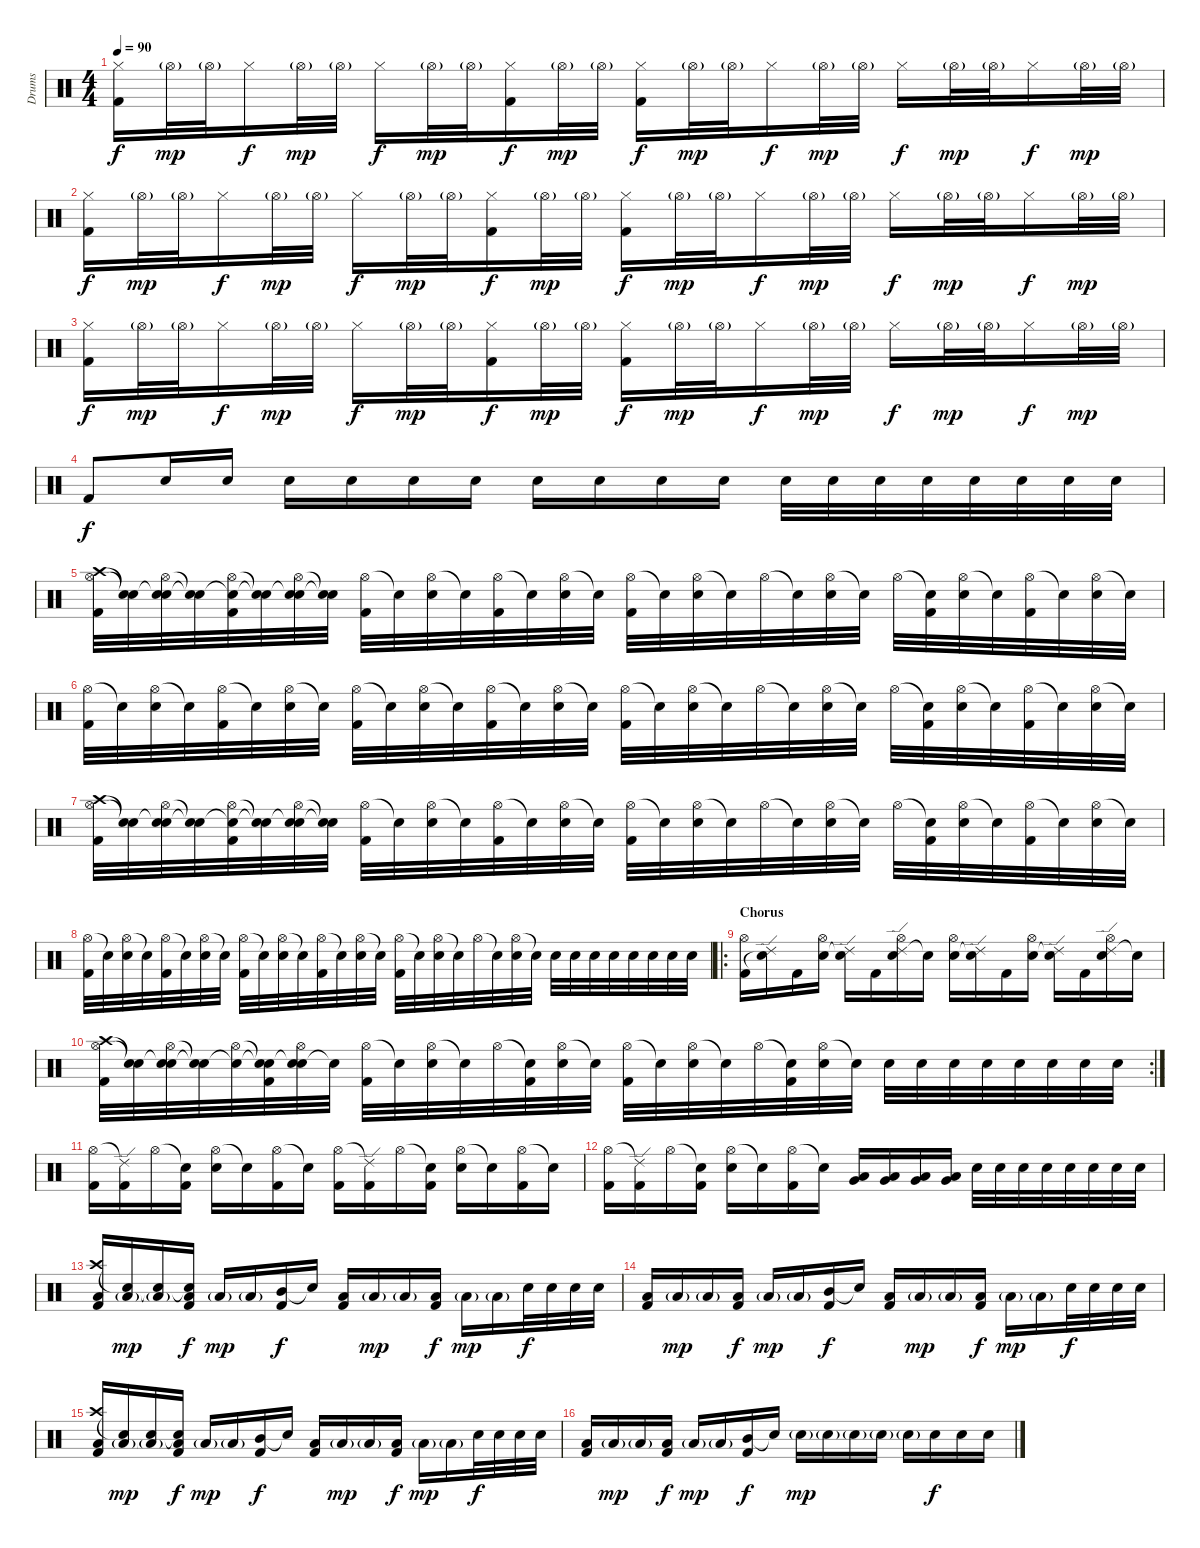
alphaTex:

\track ("Drums" "Drums") {instrument percussion}
\staff {score}
\articulation defaults
\ts (4 4)
\tempo 90
\clef neutral
\ks c
("Hi-Hat (closed)" "Kick (hit) 2").16{dy f} "Hi-Hat (open)"{g}.32{dy mp} "Hi-Hat (open)"{g}.32 "Hi-Hat (closed)".16{dy f} "Hi-Hat (open)"{g}.32{dy mp} "Hi-Hat (open)"{g}.32 "Hi-Hat (closed)".16{dy f} "Hi-Hat (open)"{g}.32{dy mp} "Hi-Hat (open)"{g}.32 ("Hi-Hat (closed)" "Kick (hit) 2").16{dy f} "Hi-Hat (open)"{g}.32{dy mp} "Hi-Hat (open)"{g}.32 ("Hi-Hat (closed)" "Kick (hit) 2").16{dy f} "Hi-Hat (open)"{g}.32{dy mp} "Hi-Hat (open)"{g}.32 "Hi-Hat (closed)".16{dy f} "Hi-Hat (open)"{g}.32{dy mp} "Hi-Hat (open)"{g}.32 "Hi-Hat (closed)".16{dy f} "Hi-Hat (open)"{g}.32{dy mp} "Hi-Hat (open)"{g}.32 "Hi-Hat (closed)".16{dy f} "Hi-Hat (open)"{g}.32{dy mp} "Hi-Hat (open)"{g}.32 |
("Hi-Hat (closed)" "Kick (hit) 2").16{dy f} "Hi-Hat (open)"{g}.32{dy mp} "Hi-Hat (open)"{g}.32 "Hi-Hat (closed)".16{dy f} "Hi-Hat (open)"{g}.32{dy mp} "Hi-Hat (open)"{g}.32 "Hi-Hat (closed)".16{dy f} "Hi-Hat (open)"{g}.32{dy mp} "Hi-Hat (open)"{g}.32 ("Hi-Hat (closed)" "Kick (hit) 2").16{dy f} "Hi-Hat (open)"{g}.32{dy mp} "Hi-Hat (open)"{g}.32 ("Hi-Hat (closed)" "Kick (hit) 2").16{dy f} "Hi-Hat (open)"{g}.32{dy mp} "Hi-Hat (open)"{g}.32 "Hi-Hat (closed)".16{dy f} "Hi-Hat (open)"{g}.32{dy mp} "Hi-Hat (open)"{g}.32 "Hi-Hat (closed)".16{dy f} "Hi-Hat (open)"{g}.32{dy mp} "Hi-Hat (open)"{g}.32 "Hi-Hat (closed)".16{dy f} "Hi-Hat (open)"{g}.32{dy mp} "Hi-Hat (open)"{g}.32 |
("Hi-Hat (closed)" "Kick (hit) 2").16{dy f} "Hi-Hat (open)"{g}.32{dy mp} "Hi-Hat (open)"{g}.32 "Hi-Hat (closed)".16{dy f} "Hi-Hat (open)"{g}.32{dy mp} "Hi-Hat (open)"{g}.32 "Hi-Hat (closed)".16{dy f} "Hi-Hat (open)"{g}.32{dy mp} "Hi-Hat (open)"{g}.32 ("Hi-Hat (closed)" "Kick (hit) 2").16{dy f} "Hi-Hat (open)"{g}.32{dy mp} "Hi-Hat (open)"{g}.32 ("Hi-Hat (closed)" "Kick (hit) 2").16{dy f} "Hi-Hat (open)"{g}.32{dy mp} "Hi-Hat (open)"{g}.32 "Hi-Hat (closed)".16{dy f} "Hi-Hat (open)"{g}.32{dy mp} "Hi-Hat (open)"{g}.32 "Hi-Hat (closed)".16{dy f} "Hi-Hat (open)"{g}.32{dy mp} "Hi-Hat (open)"{g}.32 "Hi-Hat (closed)".16{dy f} "Hi-Hat (open)"{g}.32{dy mp} "Hi-Hat (open)"{g}.32 |
"Kick (hit) 2".8{dy f} "Electric Snare (hit)".16{volume 0} "Electric Snare (hit)".16 "Electric Snare (hit)".16{volume 2} "Electric Snare (hit)".16{volume 4} "Electric Snare (hit)".16{volume 6} "Electric Snare (hit)".16{volume 8} "Electric Snare (hit)".16{volume 10} "Electric Snare (hit)".16{volume 11} "Electric Snare (hit)".16{volume 12} "Electric Snare (hit)".16{volume 13} "Electric Snare (hit)".32 "Electric Snare (hit)".32 "Electric Snare (hit)".32 "Electric Snare (hit)".32 "Electric Snare (hit)".32 "Electric Snare (hit)".32 "Electric Snare (hit)".32 "Electric Snare (hit)".32 |
("Crash high (hit)" "Hi-Hat (open)" "Kick (hit) 2").32 ("Snare (hit)"{t} "Snare (hit)"{t}).32 ("Snare (hit)"{t} "Hi-Hat (open)" "Electric Snare (hit)").32 ("Snare (hit)"{t} "Snare (hit)"{t}).32 ("Snare (hit)"{t} "Hi-Hat (open)" "Kick (hit) 2").32 ("Snare (hit)"{t} "Snare (hit)"{t}).32 ("Snare (hit)"{t} "Hi-Hat (open)" "Electric Snare (hit)").32 ("Snare (hit)"{t} "Snare (hit)"{t}).32 ("Hi-Hat (open)" "Kick (hit) 2").32 "Snare (hit)"{t}.32 ("Hi-Hat (open)" "Electric Snare (hit)").32 "Snare (hit)"{t}.32 ("Hi-Hat (open)" "Kick (hit) 2").32 "Snare (hit)"{t}.32 ("Hi-Hat (open)" "Electric Snare (hit)").32 "Snare (hit)"{t}.32 ("Hi-Hat (open)" "Kick (hit) 2").32 "Snare (hit)"{t}.32 ("Hi-Hat (open)" "Electric Snare (hit)").32 "Snare (hit)"{t}.32 "Hi-Hat (open)".32 "Snare (hit)"{t}.32 ("Hi-Hat (open)" "Electric Snare (hit)").32 "Snare (hit)"{t}.32 "Hi-Hat (open)".32 ("Snare (hit)"{t} "Kick (hit) 2").32 ("Hi-Hat (open)" "Electric Snare (hit)").32 "Snare (hit)"{t}.32 ("Hi-Hat (open)" "Kick (hit) 2").32 "Snare (hit)"{t}.32 ("Hi-Hat (open)" "Electric Snare (hit)").32 "Snare (hit)"{t}.32 |
("Hi-Hat (open)" "Kick (hit) 2").32 "Snare (hit)"{t}.32 ("Hi-Hat (open)" "Electric Snare (hit)").32 "Snare (hit)"{t}.32 ("Hi-Hat (open)" "Kick (hit) 2").32 "Snare (hit)"{t}.32 ("Hi-Hat (open)" "Electric Snare (hit)").32 "Snare (hit)"{t}.32 ("Hi-Hat (open)" "Kick (hit) 2").32 "Snare (hit)"{t}.32 ("Hi-Hat (open)" "Electric Snare (hit)").32 "Snare (hit)"{t}.32 ("Hi-Hat (open)" "Kick (hit) 2").32 "Snare (hit)"{t}.32 ("Hi-Hat (open)" "Electric Snare (hit)").32 "Snare (hit)"{t}.32 ("Hi-Hat (open)" "Kick (hit) 2").32 "Snare (hit)"{t}.32 ("Hi-Hat (open)" "Electric Snare (hit)").32 "Snare (hit)"{t}.32 "Hi-Hat (open)".32 "Snare (hit)"{t}.32 ("Hi-Hat (open)" "Electric Snare (hit)").32 "Snare (hit)"{t}.32 "Hi-Hat (open)".32 ("Snare (hit)"{t} "Kick (hit) 2").32 ("Hi-Hat (open)" "Electric Snare (hit)").32 "Snare (hit)"{t}.32 ("Hi-Hat (open)" "Kick (hit) 2").32 "Snare (hit)"{t}.32 ("Hi-Hat (open)" "Electric Snare (hit)").32 "Snare (hit)"{t}.32 |
("Crash high (hit)" "Hi-Hat (open)" "Kick (hit) 2").32 ("Snare (hit)"{t} "Snare (hit)"{t}).32 ("Snare (hit)"{t} "Hi-Hat (open)" "Electric Snare (hit)").32 ("Snare (hit)"{t} "Snare (hit)"{t}).32 ("Snare (hit)"{t} "Hi-Hat (open)" "Kick (hit) 2").32 ("Snare (hit)"{t} "Snare (hit)"{t}).32 ("Snare (hit)"{t} "Hi-Hat (open)" "Electric Snare (hit)").32 ("Snare (hit)"{t} "Snare (hit)"{t}).32 ("Hi-Hat (open)" "Kick (hit) 2").32 "Snare (hit)"{t}.32 ("Hi-Hat (open)" "Electric Snare (hit)").32 "Snare (hit)"{t}.32 ("Hi-Hat (open)" "Kick (hit) 2").32 "Snare (hit)"{t}.32 ("Hi-Hat (open)" "Electric Snare (hit)").32 "Snare (hit)"{t}.32 ("Hi-Hat (open)" "Kick (hit) 2").32 "Snare (hit)"{t}.32 ("Hi-Hat (open)" "Electric Snare (hit)").32 "Snare (hit)"{t}.32 "Hi-Hat (open)".32 "Snare (hit)"{t}.32 ("Hi-Hat (open)" "Electric Snare (hit)").32 "Snare (hit)"{t}.32 "Hi-Hat (open)".32 ("Snare (hit)"{t} "Kick (hit) 2").32 ("Hi-Hat (open)" "Electric Snare (hit)").32 "Snare (hit)"{t}.32 ("Hi-Hat (open)" "Kick (hit) 2").32 "Snare (hit)"{t}.32 ("Hi-Hat (open)" "Electric Snare (hit)").32 "Snare (hit)"{t}.32 |
("Hi-Hat (open)" "Kick (hit) 2").32 "Snare (hit)"{t}.32 ("Hi-Hat (open)" "Electric Snare (hit)").32 "Snare (hit)"{t}.32 ("Hi-Hat (open)" "Kick (hit) 2").32 "Snare (hit)"{t}.32 ("Hi-Hat (open)" "Electric Snare (hit)").32 "Snare (hit)"{t}.32 ("Hi-Hat (open)" "Kick (hit) 2").32 "Snare (hit)"{t}.32 ("Hi-Hat (open)" "Electric Snare (hit)").32 "Snare (hit)"{t}.32 ("Hi-Hat (open)" "Kick (hit) 2").32 "Snare (hit)"{t}.32 ("Hi-Hat (open)" "Electric Snare (hit)").32 "Snare (hit)"{t}.32 ("Hi-Hat (open)" "Kick (hit) 2").32 "Snare (hit)"{t}.32 ("Hi-Hat (open)" "Electric Snare (hit)").32 "Snare (hit)"{t}.32 "Hi-Hat (open)".32 "Snare (hit)"{t}.32 ("Hi-Hat (open)" "Electric Snare (hit)").32 "Snare (hit)"{t}.32 "Electric Snare (hit)".32 "Electric Snare (hit)".32 "Electric Snare (hit)".32 "Electric Snare (hit)".32 "Electric Snare (hit)".32 "Electric Snare (hit)".32 "Electric Snare (hit)".32 "Electric Snare (hit)".32 |
\ro
\section ("" "Chorus")
("Hi-Hat (open)" "Kick (hit) 2").16 ("Ride (edge) 2" "Snare (hit)"{t}).16 "Kick (hit) 2".16 ("Hi-Hat (open)" "Electric Snare (hit)").16 ("Ride (edge) 2" "Snare (hit)"{t}).16 "Kick (hit) 2".16 ("Ride (edge) 2" "Hi-Hat (open)" "Electric Snare (hit)").16 "Snare (hit)"{t}.16 ("Hi-Hat (open)" "Electric Snare (hit)").16 ("Ride (edge) 2" "Snare (hit)"{t}).16 "Kick (hit) 2".16 ("Hi-Hat (open)" "Electric Snare (hit)").16 ("Ride (edge) 2" "Snare (hit)"{t}).16 "Kick (hit) 2".16 ("Ride (edge) 2" "Hi-Hat (open)" "Electric Snare (hit)").16 "Snare (hit)"{t}.16 |
\rc 2
("Crash high (hit)" "Hi-Hat (open)" "Kick (hit) 2").32 ("Snare (hit)"{t} "Snare (hit)"{t}).32 ("Snare (hit)"{t} "Hi-Hat (open)" "Electric Snare (hit)").32 ("Snare (hit)"{t} "Snare (hit)"{t}).32 ("Snare (hit)"{t} "Hi-Hat (open)").32 ("Snare (hit)"{t} "Snare (hit)"{t} "Kick (hit) 2").32 ("Snare (hit)"{t} "Hi-Hat (open)" "Electric Snare (hit)").32 "Snare (hit)"{t}.32 ("Hi-Hat (open)" "Kick (hit) 2").32 "Snare (hit)"{t}.32 ("Hi-Hat (open)" "Electric Snare (hit)").32 "Snare (hit)"{t}.32 "Hi-Hat (open)".32 ("Snare (hit)"{t} "Kick (hit) 2").32 ("Hi-Hat (open)" "Electric Snare (hit)").32 "Snare (hit)"{t}.32 ("Hi-Hat (open)" "Kick (hit) 2").32 "Snare (hit)"{t}.32 ("Hi-Hat (open)" "Electric Snare (hit)").32 "Snare (hit)"{t}.32 "Hi-Hat (open)".32 ("Snare (hit)"{t} "Kick (hit) 2").32 ("Hi-Hat (open)" "Electric Snare (hit)").32 "Snare (hit)"{t}.32 "Electric Snare (hit)".32 "Electric Snare (hit)".32 "Electric Snare (hit)".32 "Electric Snare (hit)".32 "Electric Snare (hit)".32 "Electric Snare (hit)".32 "Electric Snare (hit)".32 "Electric Snare (hit)".32 |
("Hi-Hat (open)" "Kick (hit) 2").16 ("Ride (edge) 2"{t} "Kick (hit) 2").16 "Hi-Hat (open)".16 ("Snare (hit)"{t} "Kick (hit) 2").16 ("Hi-Hat (open)" "Electric Snare (hit)").16 "Snare (hit)"{t}.16 ("Hi-Hat (open)" "Kick (hit) 2").16 "Snare (hit)"{t}.16 ("Hi-Hat (open)" "Kick (hit) 2").16 ("Ride (edge) 2"{t} "Kick (hit) 2").16 "Hi-Hat (open)".16 ("Snare (hit)"{t} "Kick (hit) 2").16 ("Hi-Hat (open)" "Electric Snare (hit)").16 "Snare (hit)"{t}.16 ("Hi-Hat (open)" "Kick (hit) 2").16 "Snare (hit)"{t}.16 |
("Hi-Hat (open)" "Kick (hit) 2").16 ("Ride (edge) 2"{t} "Kick (hit) 2").16 "Hi-Hat (open)".16 ("Snare (hit)"{t} "Kick (hit) 2").16 ("Hi-Hat (open)" "Electric Snare (hit)").16 "Snare (hit)"{t}.16 ("Hi-Hat (open)" "Kick (hit) 2").16 "Snare (hit)"{t}.16 ("Very Low Tom (hit)" "Low Floor Tom (hit)").16 ("Very Low Tom (hit)" "Low Floor Tom (hit)").16 ("Very Low Tom (hit)" "Low Floor Tom (hit)").16 ("Very Low Tom (hit)" "Low Floor Tom (hit)").16 "Electric Snare (hit)".32 "Electric Snare (hit)".32 "Electric Snare (hit)".32 "Electric Snare (hit)".32 "Electric Snare (hit)".32 "Electric Snare (hit)".32 "Electric Snare (hit)".32 "Electric Snare (hit)".32 |
("Crash high (hit)" "Low Tom (hit)" "Kick (hit) 2").16 ("Snare (hit)"{t} "Low Tom (hit)"{g}).16{dy mp} ("Snare (hit)"{t} "Low Tom (hit)"{g}).16 ("Snare (hit)"{t} "Low Tom (hit)" "Kick (hit) 2").16{dy f} "Low Tom (hit)"{g}.16{dy mp} "Low Tom (hit)"{g}.16 ("Mid Tom (hit)" "Kick (hit) 2").16{dy f} "Snare (hit)"{t}.16 ("Low Tom (hit)" "Kick (hit) 2").16 "Low Tom (hit)"{g}.16{dy mp} "Low Tom (hit)"{g}.16 ("Low Tom (hit)" "Kick (hit) 2").16{dy f} "Low Tom (hit)"{g}.16{dy mp} "Low Tom (hit)"{g}.16 "Electric Snare (hit)".32{dy f} "Electric Snare (hit)".32 "Electric Snare (hit)".32 "Electric Snare (hit)".32 |
("Low Tom (hit)" "Kick (hit) 2").16 "Low Tom (hit)"{g}.16{dy mp} "Low Tom (hit)"{g}.16 ("Low Tom (hit)" "Kick (hit) 2").16{dy f} "Low Tom (hit)"{g}.16{dy mp} "Low Tom (hit)"{g}.16 ("Mid Tom (hit)" "Kick (hit) 2").16{dy f} "Snare (hit)"{t}.16 ("Low Tom (hit)" "Kick (hit) 2").16 "Low Tom (hit)"{g}.16{dy mp} "Low Tom (hit)"{g}.16 ("Low Tom (hit)" "Kick (hit) 2").16{dy f} "Low Tom (hit)"{g}.16{dy mp} "Low Tom (hit)"{g}.16 "Electric Snare (hit)".32{dy f} "Electric Snare (hit)".32 "Electric Snare (hit)".32 "Electric Snare (hit)".32 |
("Crash high (hit)" "Low Tom (hit)" "Kick (hit) 2").16 ("Snare (hit)"{t} "Low Tom (hit)"{g}).16{dy mp} ("Snare (hit)"{t} "Low Tom (hit)"{g}).16 ("Snare (hit)"{t} "Low Tom (hit)" "Kick (hit) 2").16{dy f} "Low Tom (hit)"{g}.16{dy mp} "Low Tom (hit)"{g}.16 ("Mid Tom (hit)" "Kick (hit) 2").16{dy f} "Snare (hit)"{t}.16 ("Low Tom (hit)" "Kick (hit) 2").16 "Low Tom (hit)"{g}.16{dy mp} "Low Tom (hit)"{g}.16 ("Low Tom (hit)" "Kick (hit) 2").16{dy f} "Low Tom (hit)"{g}.16{dy mp} "Low Tom (hit)"{g}.16 "Electric Snare (hit)".32{dy f} "Electric Snare (hit)".32 "Electric Snare (hit)".32 "Electric Snare (hit)".32 |
("Low Tom (hit)" "Kick (hit) 2").16 "Low Tom (hit)"{g}.16{dy mp} "Low Tom (hit)"{g}.16 ("Low Tom (hit)" "Kick (hit) 2").16{dy f} "Low Tom (hit)"{g}.16{dy mp} "Low Tom (hit)"{g}.16 ("Mid Tom (hit)" "Kick (hit) 2").16{dy f} "Snare (hit)"{t}.16 "Electric Snare (hit)"{g}.16{dy mp} "Electric Snare (hit)"{g}.16 "Electric Snare (hit)"{g}.16 "Electric Snare (hit)"{g}.16 "Electric Snare (hit)"{g}.16 "Electric Snare (hit)".16{dy f} "Electric Snare (hit)".16 "Electric Snare (hit)".16
